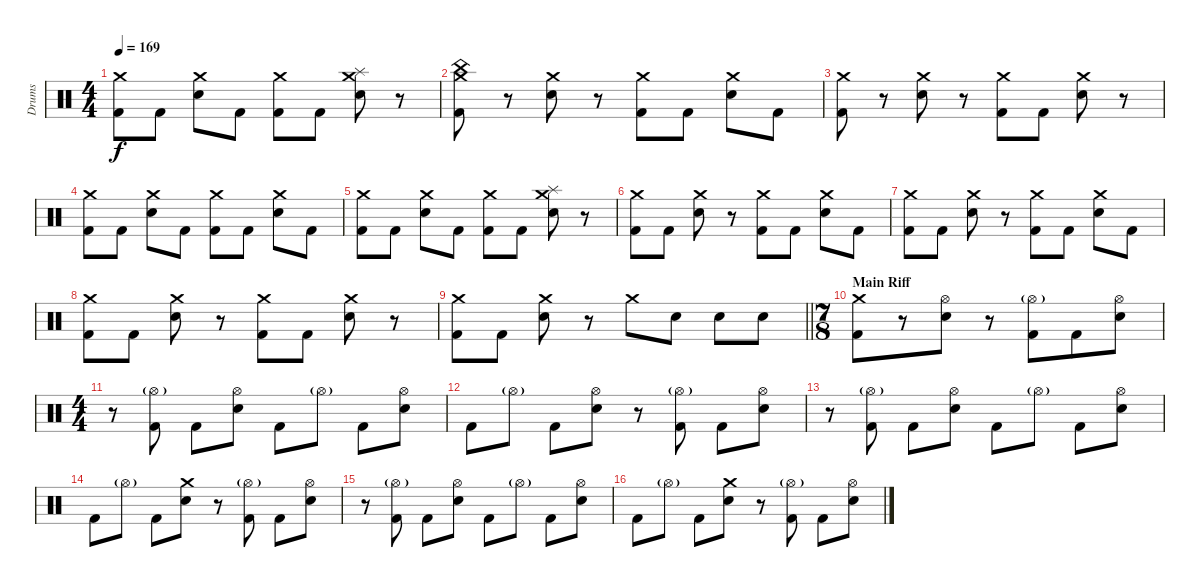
\track ("Drums" "Drums") {instrument percussion}
\staff {score}
\articulation defaults
\ts (4 4)
\tempo 169
\clef neutral
\ks c
("Crash medium (hit)" "Kick (hit) 2").8{dy f} "Kick (hit) 2".8 ("Crash medium (hit)" "Electric Snare (hit)").8 "Kick (hit) 2".8 ("Crash medium (hit)" "Kick (hit) 2").8 "Kick (hit) 2".8 ("Crash medium (hit)" "Splash (hit)" "Electric Snare (hit)").8 r.8 |
("Crash medium (hit)" "China (hit)" "Kick (hit) 2").8 r.8 ("Crash medium (hit)" "Electric Snare (hit)").8 r.8 ("Crash medium (hit)" "Kick (hit) 2").8 "Kick (hit) 2".8 ("Crash medium (hit)" "Electric Snare (hit)").8 "Kick (hit) 2".8 |
("Crash medium (hit)" "Kick (hit) 2").8 r.8 ("Crash medium (hit)" "Electric Snare (hit)").8 r.8 ("Crash medium (hit)" "Kick (hit) 2").8 "Kick (hit) 2".8 ("Crash medium (hit)" "Electric Snare (hit)").8 r.8 |
("Crash medium (hit)" "Kick (hit) 2").8 "Kick (hit) 2".8 ("Crash medium (hit)" "Electric Snare (hit)").8 "Kick (hit) 2".8 ("Crash medium (hit)" "Kick (hit) 2").8 "Kick (hit) 2".8 ("Crash medium (hit)" "Electric Snare (hit)").8 "Kick (hit) 2".8 |
("Crash medium (hit)" "Kick (hit) 2").8 "Kick (hit) 2".8 ("Crash medium (hit)" "Electric Snare (hit)").8 "Kick (hit) 2".8 ("Crash medium (hit)" "Kick (hit) 2").8 "Kick (hit) 2".8 ("Crash medium (hit)" "Splash (hit)" "Electric Snare (hit)").8 r.8 |
("Crash medium (hit)" "Kick (hit) 2").8 "Kick (hit) 2".8 ("Crash medium (hit)" "Electric Snare (hit)").8 r.8 ("Crash medium (hit)" "Kick (hit) 2").8 "Kick (hit) 2".8 ("Crash medium (hit)" "Electric Snare (hit)").8 "Kick (hit) 2".8 |
("Crash medium (hit)" "Kick (hit) 2").8 "Kick (hit) 2".8 ("Crash medium (hit)" "Electric Snare (hit)").8 r.8 ("Crash medium (hit)" "Kick (hit) 2").8 "Kick (hit) 2".8 ("Crash medium (hit)" "Electric Snare (hit)").8 "Kick (hit) 2".8 |
("Crash medium (hit)" "Kick (hit) 2").8 "Kick (hit) 2".8 ("Crash medium (hit)" "Electric Snare (hit)").8 r.8 ("Crash medium (hit)" "Kick (hit) 2").8 "Kick (hit) 2".8 ("Crash medium (hit)" "Electric Snare (hit)").8 r.8 |
\barLineRight lightlight
("Crash medium (hit)" "Kick (hit) 2").8 "Kick (hit) 2".8 ("Crash medium (hit)" "Electric Snare (hit)").8 r.8 "Crash medium (hit)".8 "Electric Snare (hit)".8 "Electric Snare (hit)".8 "Electric Snare (hit)".8 |
\ts (7 8)
\section ("" "Main Riff")
("Crash medium (hit)" "Kick (hit) 2").8 r.8 ("Hi-Hat (open)" "Electric Snare (hit)").8 r.8 ("Hi-Hat (open)"{g} "Kick (hit) 2").8 "Kick (hit) 2".8 ("Hi-Hat (open)" "Electric Snare (hit)").8 |
\ts (4 4)
r.8 ("Hi-Hat (open)"{g} "Kick (hit) 2").8 "Kick (hit) 2".8 ("Hi-Hat (open)" "Electric Snare (hit)").8 "Kick (hit) 2".8 "Hi-Hat (open)"{g}.8 "Kick (hit) 2".8 ("Hi-Hat (open)" "Electric Snare (hit)").8 |
"Kick (hit) 2".8 "Hi-Hat (open)"{g}.8 "Kick (hit) 2".8 ("Hi-Hat (open)" "Electric Snare (hit)").8 r.8 ("Hi-Hat (open)"{g} "Kick (hit) 2").8 "Kick (hit) 2".8 ("Hi-Hat (open)" "Electric Snare (hit)").8 |
r.8 ("Hi-Hat (open)"{g} "Kick (hit) 2").8 "Kick (hit) 2".8 ("Hi-Hat (open)" "Electric Snare (hit)").8 "Kick (hit) 2".8 "Hi-Hat (open)"{g}.8 "Kick (hit) 2".8 ("Hi-Hat (open)" "Electric Snare (hit)").8 |
"Kick (hit) 2".8 "Hi-Hat (open)"{g}.8 "Kick (hit) 2".8 ("Crash medium (hit)" "Electric Snare (hit)").8 r.8 ("Hi-Hat (open)"{g} "Kick (hit) 2").8 "Kick (hit) 2".8 ("Hi-Hat (open)" "Electric Snare (hit)").8 |
r.8 ("Hi-Hat (open)"{g} "Kick (hit) 2").8 "Kick (hit) 2".8 ("Hi-Hat (open)" "Electric Snare (hit)").8 "Kick (hit) 2".8 "Hi-Hat (open)"{g}.8 "Kick (hit) 2".8 ("Hi-Hat (open)" "Electric Snare (hit)").8 |
"Kick (hit) 2".8 "Hi-Hat (open)"{g}.8 "Kick (hit) 2".8 ("Crash medium (hit)" "Electric Snare (hit)").8 r.8 ("Hi-Hat (open)"{g} "Kick (hit) 2").8 "Kick (hit) 2".8 ("Hi-Hat (open)" "Electric Snare (hit)").8
